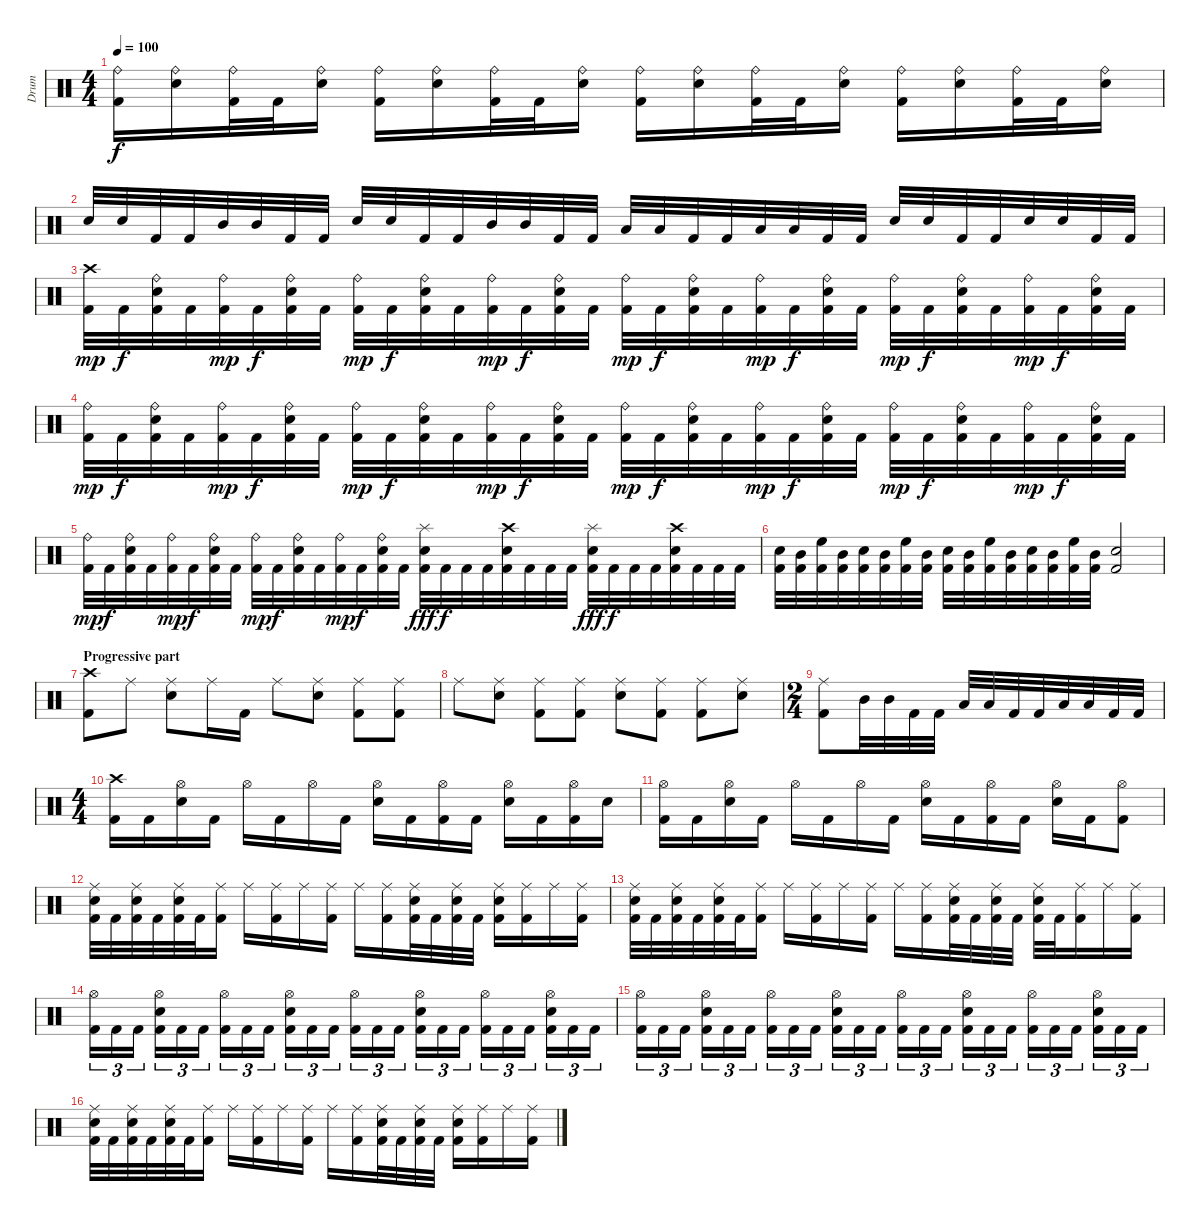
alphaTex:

\track ("Drum" "Drum") {instrument percussion}
\staff {score}
\articulation defaults
\ts (4 4)
\tempo 100
\clef neutral
\ks c
("Ride (bell)" "Kick (hit) 2").16{dy f} ("Ride (bell)" "Snare (hit) 2").16 ("Ride (bell)" "Kick (hit) 2").32 "Kick (hit) 2".32 ("Ride (bell)" "Snare (hit) 2").16 ("Ride (bell)" "Kick (hit) 2").16 ("Ride (bell)" "Snare (hit) 2").16 ("Ride (bell)" "Kick (hit) 2").32 "Kick (hit) 2".32 ("Ride (bell)" "Snare (hit) 2").16 ("Ride (bell)" "Kick (hit) 2").16 ("Ride (bell)" "Snare (hit) 2").16 ("Ride (bell)" "Kick (hit) 2").32 "Kick (hit) 2".32 ("Ride (bell)" "Snare (hit) 2").16 ("Ride (bell)" "Kick (hit) 2").16 ("Ride (bell)" "Snare (hit) 2").16 ("Ride (bell)" "Kick (hit) 2").32 "Kick (hit) 2".32 ("Ride (bell)" "Snare (hit) 2").16 |
"Snare (hit) 2".32 "Snare (hit) 2".32 "Kick (hit) 2".32 "Kick (hit) 2".32 "Mid Tom (hit)".32 "Mid Tom (hit)".32 "Kick (hit) 2".32 "Kick (hit) 2".32 "Snare (hit) 2".32 "Snare (hit) 2".32 "Kick (hit) 2".32 "Kick (hit) 2".32 "Mid Tom (hit)".32 "Mid Tom (hit)".32 "Kick (hit) 2".32 "Kick (hit) 2".32 "Low Tom (hit)".32 "Low Tom (hit)".32 "Kick (hit) 2".32 "Kick (hit) 2".32 "Low Floor Tom (hit)".32 "Low Floor Tom (hit)".32 "Kick (hit) 2".32 "Kick (hit) 2".32 "Snare (hit) 2".32 "Snare (hit) 2".32 "Kick (hit) 2".32 "Kick (hit) 2".32 "Snare (hit) 2".32 "Snare (hit) 2".32 "Kick (hit) 2".32 "Kick (hit) 2".32 |
("Crash high (hit)" "Kick (hit) 2").32{dy mp} "Kick (hit) 2".32{dy f} ("Ride (bell)" "Snare (hit) 2" "Kick (hit) 2").32 "Kick (hit) 2".32 ("Ride (bell)" "Kick (hit) 2").32{dy mp} "Kick (hit) 2".32{dy f} ("Ride (bell)" "Snare (hit) 2" "Kick (hit) 2").32 "Kick (hit) 2".32 ("Ride (bell)" "Kick (hit) 2").32{dy mp} "Kick (hit) 2".32{dy f} ("Ride (bell)" "Snare (hit) 2" "Kick (hit) 2").32 "Kick (hit) 2".32 ("Ride (bell)" "Kick (hit) 2").32{dy mp} "Kick (hit) 2".32{dy f} ("Ride (bell)" "Snare (hit) 2" "Kick (hit) 2").32 "Kick (hit) 2".32 ("Ride (bell)" "Kick (hit) 2").32{dy mp} "Kick (hit) 2".32{dy f} ("Ride (bell)" "Snare (hit) 2" "Kick (hit) 2").32 "Kick (hit) 2".32 ("Ride (bell)" "Kick (hit) 2").32{dy mp} "Kick (hit) 2".32{dy f} ("Ride (bell)" "Snare (hit) 2" "Kick (hit) 2").32 "Kick (hit) 2".32 ("Ride (bell)" "Kick (hit) 2").32{dy mp} "Kick (hit) 2".32{dy f} ("Ride (bell)" "Snare (hit) 2" "Kick (hit) 2").32 "Kick (hit) 2".32 ("Ride (bell)" "Kick (hit) 2").32{dy mp} "Kick (hit) 2".32{dy f} ("Ride (bell)" "Snare (hit) 2" "Kick (hit) 2").32 "Kick (hit) 2".32 |
("Ride (bell)" "Kick (hit) 2").32{dy mp} "Kick (hit) 2".32{dy f} ("Ride (bell)" "Snare (hit) 2" "Kick (hit) 2").32 "Kick (hit) 2".32 ("Ride (bell)" "Kick (hit) 2").32{dy mp} "Kick (hit) 2".32{dy f} ("Ride (bell)" "Snare (hit) 2" "Kick (hit) 2").32 "Kick (hit) 2".32 ("Ride (bell)" "Kick (hit) 2").32{dy mp} "Kick (hit) 2".32{dy f} ("Ride (bell)" "Snare (hit) 2" "Kick (hit) 2").32 "Kick (hit) 2".32 ("Ride (bell)" "Kick (hit) 2").32{dy mp} "Kick (hit) 2".32{dy f} ("Ride (bell)" "Snare (hit) 2" "Kick (hit) 2").32 "Kick (hit) 2".32 ("Ride (bell)" "Kick (hit) 2").32{dy mp} "Kick (hit) 2".32{dy f} ("Ride (bell)" "Snare (hit) 2" "Kick (hit) 2").32 "Kick (hit) 2".32 ("Ride (bell)" "Kick (hit) 2").32{dy mp} "Kick (hit) 2".32{dy f} ("Ride (bell)" "Snare (hit) 2" "Kick (hit) 2").32 "Kick (hit) 2".32 ("Ride (bell)" "Kick (hit) 2").32{dy mp} "Kick (hit) 2".32{dy f} ("Ride (bell)" "Snare (hit) 2" "Kick (hit) 2").32 "Kick (hit) 2".32 ("Ride (bell)" "Kick (hit) 2").32{dy mp} "Kick (hit) 2".32{dy f} ("Ride (bell)" "Snare (hit) 2" "Kick (hit) 2").32 "Kick (hit) 2".32 |
("Ride (bell)" "Kick (hit) 2").32{dy mp} "Kick (hit) 2".32{dy f} ("Ride (bell)" "Snare (hit) 2" "Kick (hit) 2").32 "Kick (hit) 2".32 ("Ride (bell)" "Kick (hit) 2").32{dy mp} "Kick (hit) 2".32{dy f} ("Ride (bell)" "Snare (hit) 2" "Kick (hit) 2").32 "Kick (hit) 2".32 ("Ride (bell)" "Kick (hit) 2").32{dy mp} "Kick (hit) 2".32{dy f} ("Ride (bell)" "Snare (hit) 2" "Kick (hit) 2").32 "Kick (hit) 2".32 ("Ride (bell)" "Kick (hit) 2").32{dy mp} "Kick (hit) 2".32{dy f} ("Ride (bell)" "Snare (hit) 2" "Kick (hit) 2").32 "Kick (hit) 2".32 ("Splash (hit)" "Snare (hit) 2" "Kick (hit) 2").32{dy fff} "Kick (hit) 2".32{dy f} "Kick (hit) 2".32 "Kick (hit) 2".32 ("Crash high (hit)" "Snare (hit) 2" "Kick (hit) 2").32 "Kick (hit) 2".32 "Kick (hit) 2".32 "Kick (hit) 2".32 ("Splash (hit)" "Snare (hit) 2" "Kick (hit) 2").32{dy fff} "Kick (hit) 2".32{dy f} "Kick (hit) 2".32 "Kick (hit) 2".32 ("Crash high (hit)" "Snare (hit) 2" "Kick (hit) 2").32 "Kick (hit) 2".32 "Kick (hit) 2".32 "Kick (hit) 2".32 |
("Snare (hit) 2" "Kick (hit) 2").32 ("Mid Tom (hit)" "Kick (hit) 2").32 ("High Floor Tom (hit)" "Kick (hit) 2").32 ("Mid Tom (hit)" "Kick (hit) 2").32 ("Snare (hit) 2" "Kick (hit) 2").32 ("Mid Tom (hit)" "Kick (hit) 2").32 ("High Floor Tom (hit)" "Kick (hit) 2").32 ("Mid Tom (hit)" "Kick (hit) 2").32 ("Snare (hit) 2" "Kick (hit) 2").32 ("Mid Tom (hit)" "Kick (hit) 2").32 ("High Floor Tom (hit)" "Kick (hit) 2").32 ("Mid Tom (hit)" "Kick (hit) 2").32 ("Snare (hit) 2" "Kick (hit) 2").32 ("Mid Tom (hit)" "Kick (hit) 2").32 ("High Floor Tom (hit)" "Kick (hit) 2").32 ("Mid Tom (hit)" "Kick (hit) 2").32 ("Snare (hit) 2" "Kick (hit) 2").2 |
\section ("" "Progressive part")
("Crash high (hit)" "Kick (hit) 2").8 "Ride (middle)".8 ("Ride (middle)" "Snare (hit) 2").8 "Ride (middle)".16 "Kick (hit) 2".16 "Ride (middle)".8 ("Ride (middle)" "Snare (hit) 2").8 ("Ride (middle)" "Kick (hit) 2").8 ("Ride (middle)" "Kick (hit) 2").8 |
"Ride (middle)".8 ("Ride (middle)" "Snare (hit) 2").8 ("Ride (middle)" "Kick (hit) 2").8 ("Ride (middle)" "Kick (hit) 2").8 ("Ride (middle)" "Snare (hit) 2").8 ("Ride (middle)" "Kick (hit) 2").8 ("Ride (middle)" "Kick (hit) 2").8 ("Ride (middle)" "Snare (hit) 2").8 |
\ts (2 4)
("Ride (middle)" "Kick (hit) 2").8 "Mid Tom (hit)".32 "Mid Tom (hit)".32 "Kick (hit) 2".32 "Kick (hit) 2".32 "Low Tom (hit)".32 "Low Tom (hit)".32 "Kick (hit) 2".32 "Kick (hit) 2".32 "Low Floor Tom (hit)".32 "Low Floor Tom (hit)".32 "Kick (hit) 2".32 "Kick (hit) 2".32 |
\ts (4 4)
("Crash high (hit)" "Kick (hit) 2").16 "Kick (hit) 2".16 ("Hi-Hat (open)" "Snare (hit) 2").16 "Kick (hit) 2".16 "Hi-Hat (open)".16 "Kick (hit) 2".16 "Hi-Hat (open)".16 "Kick (hit) 2".16 ("Hi-Hat (open)" "Snare (hit) 2").16 "Kick (hit) 2".16 ("Hi-Hat (open)" "Kick (hit) 2").16 "Kick (hit) 2".16 ("Hi-Hat (open)" "Snare (hit) 2").16 "Kick (hit) 2".16 ("Hi-Hat (open)" "Kick (hit) 2").16 "Snare (hit) 2".16 |
("Hi-Hat (open)" "Kick (hit) 2").16 "Kick (hit) 2".16 ("Hi-Hat (open)" "Snare (hit) 2").16 "Kick (hit) 2".16 "Hi-Hat (open)".16 "Kick (hit) 2".16 "Hi-Hat (open)".16 "Kick (hit) 2".16 ("Hi-Hat (open)" "Snare (hit) 2").16 "Kick (hit) 2".16 ("Hi-Hat (open)" "Kick (hit) 2").16 "Kick (hit) 2".16 ("Hi-Hat (open)" "Snare (hit) 2").16 "Kick (hit) 2".16 ("Hi-Hat (open)" "Kick (hit) 2").8 |
("Ride (middle)" "Snare (hit) 2" "Kick (hit) 2").32 "Kick (hit) 2".32 ("Ride (middle)" "Snare (hit) 2" "Kick (hit) 2").32 "Kick (hit) 2".32 ("Ride (middle)" "Snare (hit) 2" "Kick (hit) 2").32 "Kick (hit) 2".32 ("Ride (middle)" "Kick (hit) 2").16 "Ride (middle)".16 ("Ride (middle)" "Kick (hit) 2").16 "Ride (middle)".16 ("Ride (middle)" "Kick (hit) 2").16 "Ride (middle)".16 ("Ride (middle)" "Kick (hit) 2").16 ("Ride (middle)" "Snare (hit) 2" "Kick (hit) 2").32 "Kick (hit) 2".32 ("Ride (middle)" "Snare (hit) 2" "Kick (hit) 2").32 "Kick (hit) 2".32 ("Ride (middle)" "Snare (hit) 2" "Kick (hit) 2").16 ("Ride (middle)" "Kick (hit) 2").16 "Ride (middle)".16 ("Ride (middle)" "Kick (hit) 2").16 |
("Ride (middle)" "Snare (hit) 2" "Kick (hit) 2").32 "Kick (hit) 2".32 ("Ride (middle)" "Snare (hit) 2" "Kick (hit) 2").32 "Kick (hit) 2".32 ("Ride (middle)" "Snare (hit) 2" "Kick (hit) 2").32 "Kick (hit) 2".32 ("Ride (middle)" "Kick (hit) 2").16 "Ride (middle)".16 ("Ride (middle)" "Kick (hit) 2").16 "Ride (middle)".16 ("Ride (middle)" "Kick (hit) 2").16 "Ride (middle)".16 ("Ride (middle)" "Kick (hit) 2").16 ("Ride (middle)" "Snare (hit) 2" "Kick (hit) 2").32 "Kick (hit) 2".32 ("Ride (middle)" "Snare (hit) 2" "Kick (hit) 2").32 "Kick (hit) 2".32 ("Ride (middle)" "Snare (hit) 2" "Kick (hit) 2").32 "Kick (hit) 2".32 ("Ride (middle)" "Kick (hit) 2").16 "Ride (middle)".16 ("Ride (middle)" "Kick (hit) 2").16 |
("Hi-Hat (open)" "Kick (hit) 2").16{tu (3 2)} "Kick (hit) 2".16{tu (3 2)} "Kick (hit) 2".16{tu (3 2)} ("Hi-Hat (open)" "Snare (hit) 2" "Kick (hit) 2").16{tu (3 2)} "Kick (hit) 2".16{tu (3 2)} "Kick (hit) 2".16{tu (3 2)} ("Hi-Hat (open)" "Kick (hit) 2").16{tu (3 2)} "Kick (hit) 2".16{tu (3 2)} "Kick (hit) 2".16{tu (3 2)} ("Hi-Hat (open)" "Snare (hit) 2" "Kick (hit) 2").16{tu (3 2)} "Kick (hit) 2".16{tu (3 2)} "Kick (hit) 2".16{tu (3 2)} ("Hi-Hat (open)" "Kick (hit) 2").16{tu (3 2)} "Kick (hit) 2".16{tu (3 2)} "Kick (hit) 2".16{tu (3 2)} ("Hi-Hat (open)" "Snare (hit) 2" "Kick (hit) 2").16{tu (3 2)} "Kick (hit) 2".16{tu (3 2)} "Kick (hit) 2".16{tu (3 2)} ("Hi-Hat (open)" "Kick (hit) 2").16{tu (3 2)} "Kick (hit) 2".16{tu (3 2)} "Kick (hit) 2".16{tu (3 2)} ("Hi-Hat (open)" "Snare (hit) 2" "Kick (hit) 2").16{tu (3 2)} "Kick (hit) 2".16{tu (3 2)} "Kick (hit) 2".16{tu (3 2)} |
("Hi-Hat (open)" "Kick (hit) 2").16{tu (3 2)} "Kick (hit) 2".16{tu (3 2)} "Kick (hit) 2".16{tu (3 2)} ("Hi-Hat (open)" "Snare (hit) 2" "Kick (hit) 2").16{tu (3 2)} "Kick (hit) 2".16{tu (3 2)} "Kick (hit) 2".16{tu (3 2)} ("Hi-Hat (open)" "Kick (hit) 2").16{tu (3 2)} "Kick (hit) 2".16{tu (3 2)} "Kick (hit) 2".16{tu (3 2)} ("Hi-Hat (open)" "Snare (hit) 2" "Kick (hit) 2").16{tu (3 2)} "Kick (hit) 2".16{tu (3 2)} "Kick (hit) 2".16{tu (3 2)} ("Hi-Hat (open)" "Kick (hit) 2").16{tu (3 2)} "Kick (hit) 2".16{tu (3 2)} "Kick (hit) 2".16{tu (3 2)} ("Hi-Hat (open)" "Snare (hit) 2" "Kick (hit) 2").16{tu (3 2)} "Kick (hit) 2".16{tu (3 2)} "Kick (hit) 2".16{tu (3 2)} ("Hi-Hat (open)" "Kick (hit) 2").16{tu (3 2)} "Kick (hit) 2".16{tu (3 2)} "Kick (hit) 2".16{tu (3 2)} ("Hi-Hat (open)" "Snare (hit) 2" "Kick (hit) 2").16{tu (3 2)} "Kick (hit) 2".16{tu (3 2)} "Kick (hit) 2".16{tu (3 2)} |
("Ride (middle)" "Snare (hit) 2" "Kick (hit) 2").32 "Kick (hit) 2".32 ("Ride (middle)" "Snare (hit) 2" "Kick (hit) 2").32 "Kick (hit) 2".32 ("Ride (middle)" "Snare (hit) 2" "Kick (hit) 2").32 "Kick (hit) 2".32 ("Ride (middle)" "Kick (hit) 2").16 "Ride (middle)".16 ("Ride (middle)" "Kick (hit) 2").16 "Ride (middle)".16 ("Ride (middle)" "Kick (hit) 2").16 "Ride (middle)".16 ("Ride (middle)" "Kick (hit) 2").16 ("Ride (middle)" "Snare (hit) 2" "Kick (hit) 2").32 "Kick (hit) 2".32 ("Ride (middle)" "Snare (hit) 2" "Kick (hit) 2").32 "Kick (hit) 2".32 ("Ride (middle)" "Snare (hit) 2" "Kick (hit) 2").16 ("Ride (middle)" "Kick (hit) 2").16 "Ride (middle)".16 ("Ride (middle)" "Kick (hit) 2").16
